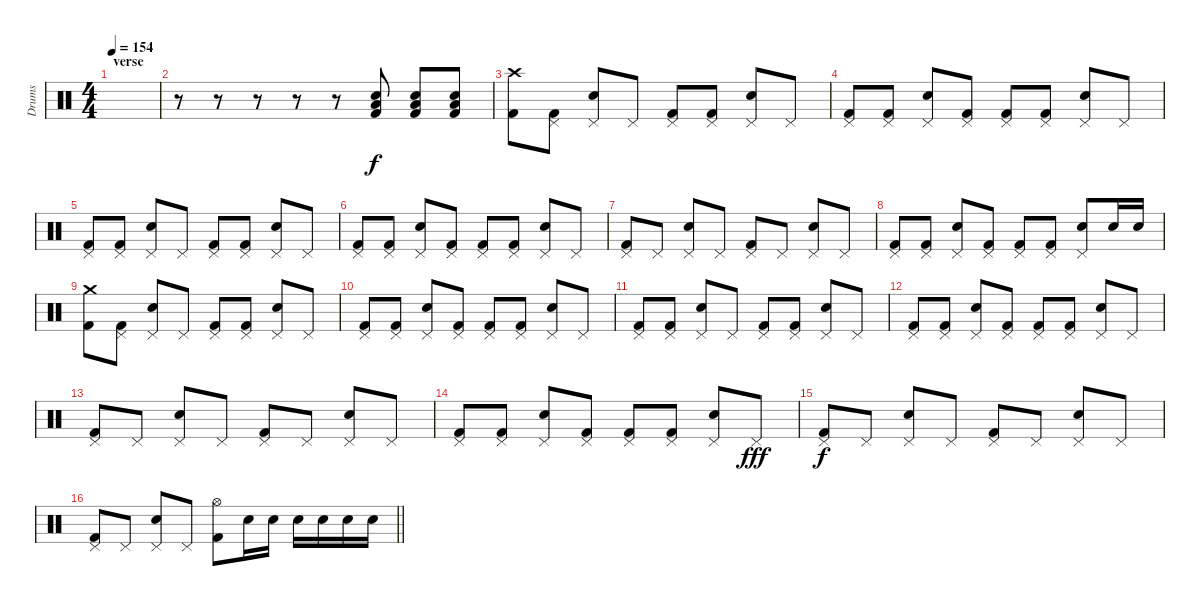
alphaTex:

\track ("Drums" "Drums") {instrument percussion}
\staff {score}
\articulation defaults
\ts (4 4)
\section ("" "verse")
\tempo 154
\clef neutral
\ks c
|
r.8 r.8 r.8 r.8 r.8 ("Snare (hit) 2" "Low Floor Tom (hit)" "Kick (hit) 2").8 ("Snare (hit) 2" "Low Floor Tom (hit)" "Kick (hit) 2").8 ("Snare (hit) 2" "Low Floor Tom (hit)" "Kick (hit) 2").8 |
("Crash high (hit)" "Kick (hit) 2").8{dy f} ("Pedal Hi-Hat (hit)" "Kick (hit) 2").8 ("Pedal Hi-Hat (hit)" "Snare (hit) 2").8 "Pedal Hi-Hat (hit)".8 ("Pedal Hi-Hat (hit)" "Kick (hit) 2").8 ("Pedal Hi-Hat (hit)" "Kick (hit) 2").8 ("Pedal Hi-Hat (hit)" "Snare (hit) 2").8 "Pedal Hi-Hat (hit)".8 |
("Pedal Hi-Hat (hit)" "Kick (hit) 2").8 ("Pedal Hi-Hat (hit)" "Kick (hit) 2").8 ("Pedal Hi-Hat (hit)" "Snare (hit) 2").8 ("Pedal Hi-Hat (hit)" "Kick (hit) 2").8 ("Pedal Hi-Hat (hit)" "Kick (hit) 2").8 ("Pedal Hi-Hat (hit)" "Kick (hit) 2").8 ("Pedal Hi-Hat (hit)" "Snare (hit) 2").8 "Pedal Hi-Hat (hit)".8 |
("Pedal Hi-Hat (hit)" "Kick (hit) 2").8 ("Pedal Hi-Hat (hit)" "Kick (hit) 2").8 ("Pedal Hi-Hat (hit)" "Snare (hit) 2").8 "Pedal Hi-Hat (hit)".8 ("Pedal Hi-Hat (hit)" "Kick (hit) 2").8 ("Pedal Hi-Hat (hit)" "Kick (hit) 2").8 ("Pedal Hi-Hat (hit)" "Snare (hit) 2").8 "Pedal Hi-Hat (hit)".8 |
("Pedal Hi-Hat (hit)" "Kick (hit) 2").8 ("Pedal Hi-Hat (hit)" "Kick (hit) 2").8 ("Pedal Hi-Hat (hit)" "Snare (hit) 2").8 ("Pedal Hi-Hat (hit)" "Kick (hit) 2").8 ("Pedal Hi-Hat (hit)" "Kick (hit) 2").8 ("Pedal Hi-Hat (hit)" "Kick (hit) 2").8 ("Pedal Hi-Hat (hit)" "Snare (hit) 2").8 "Pedal Hi-Hat (hit)".8 |
("Pedal Hi-Hat (hit)" "Kick (hit) 2").8 "Pedal Hi-Hat (hit)".8 ("Pedal Hi-Hat (hit)" "Snare (hit) 2").8 "Pedal Hi-Hat (hit)".8 ("Pedal Hi-Hat (hit)" "Kick (hit) 2").8 "Pedal Hi-Hat (hit)".8 ("Pedal Hi-Hat (hit)" "Snare (hit) 2").8 "Pedal Hi-Hat (hit)".8 |
("Pedal Hi-Hat (hit)" "Kick (hit) 2").8 ("Pedal Hi-Hat (hit)" "Kick (hit) 2").8 ("Pedal Hi-Hat (hit)" "Snare (hit) 2").8 ("Pedal Hi-Hat (hit)" "Kick (hit) 2").8 ("Pedal Hi-Hat (hit)" "Kick (hit) 2").8 ("Pedal Hi-Hat (hit)" "Kick (hit) 2").8 ("Pedal Hi-Hat (hit)" "Snare (hit) 2").8 "Snare (hit) 2".16 "Snare (hit) 2".16 |
("Crash medium (hit)" "Kick (hit) 2").8 ("Pedal Hi-Hat (hit)" "Kick (hit) 2").8 ("Pedal Hi-Hat (hit)" "Snare (hit) 2").8 "Pedal Hi-Hat (hit)".8 ("Pedal Hi-Hat (hit)" "Kick (hit) 2").8 ("Pedal Hi-Hat (hit)" "Kick (hit) 2").8 ("Pedal Hi-Hat (hit)" "Snare (hit) 2").8 "Pedal Hi-Hat (hit)".8 |
("Pedal Hi-Hat (hit)" "Kick (hit) 2").8 ("Pedal Hi-Hat (hit)" "Kick (hit) 2").8 ("Pedal Hi-Hat (hit)" "Snare (hit) 2").8 ("Pedal Hi-Hat (hit)" "Kick (hit) 2").8 ("Pedal Hi-Hat (hit)" "Kick (hit) 2").8 ("Pedal Hi-Hat (hit)" "Kick (hit) 2").8 ("Pedal Hi-Hat (hit)" "Snare (hit) 2").8 "Pedal Hi-Hat (hit)".8 |
("Pedal Hi-Hat (hit)" "Kick (hit) 2").8 ("Pedal Hi-Hat (hit)" "Kick (hit) 2").8 ("Pedal Hi-Hat (hit)" "Snare (hit) 2").8 "Pedal Hi-Hat (hit)".8 ("Pedal Hi-Hat (hit)" "Kick (hit) 2").8 ("Pedal Hi-Hat (hit)" "Kick (hit) 2").8 ("Pedal Hi-Hat (hit)" "Snare (hit) 2").8 "Pedal Hi-Hat (hit)".8 |
("Pedal Hi-Hat (hit)" "Kick (hit) 2").8 ("Pedal Hi-Hat (hit)" "Kick (hit) 2").8 ("Pedal Hi-Hat (hit)" "Snare (hit) 2").8 ("Pedal Hi-Hat (hit)" "Kick (hit) 2").8 ("Pedal Hi-Hat (hit)" "Kick (hit) 2").8 ("Pedal Hi-Hat (hit)" "Kick (hit) 2").8 ("Pedal Hi-Hat (hit)" "Snare (hit) 2").8 "Pedal Hi-Hat (hit)".8 |
("Pedal Hi-Hat (hit)" "Kick (hit) 2").8 "Pedal Hi-Hat (hit)".8 ("Pedal Hi-Hat (hit)" "Snare (hit) 2").8 "Pedal Hi-Hat (hit)".8 ("Pedal Hi-Hat (hit)" "Kick (hit) 2").8 "Pedal Hi-Hat (hit)".8 ("Pedal Hi-Hat (hit)" "Snare (hit) 2").8 "Pedal Hi-Hat (hit)".8 |
("Pedal Hi-Hat (hit)" "Kick (hit) 2").8 ("Pedal Hi-Hat (hit)" "Kick (hit) 2").8 ("Pedal Hi-Hat (hit)" "Snare (hit) 2").8 ("Pedal Hi-Hat (hit)" "Kick (hit) 2").8 ("Pedal Hi-Hat (hit)" "Kick (hit) 2").8 ("Pedal Hi-Hat (hit)" "Kick (hit) 2").8 ("Pedal Hi-Hat (hit)" "Snare (hit) 2").8 "Pedal Hi-Hat (hit)".8{dy fff} |
("Pedal Hi-Hat (hit)" "Kick (hit) 2").8{dy f} "Pedal Hi-Hat (hit)".8 ("Pedal Hi-Hat (hit)" "Snare (hit) 2").8 "Pedal Hi-Hat (hit)".8 ("Pedal Hi-Hat (hit)" "Kick (hit) 2").8 "Pedal Hi-Hat (hit)".8 ("Pedal Hi-Hat (hit)" "Snare (hit) 2").8 "Pedal Hi-Hat (hit)".8 |
\barLineRight lightlight
("Pedal Hi-Hat (hit)" "Kick (hit) 2").8 "Pedal Hi-Hat (hit)".8 ("Pedal Hi-Hat (hit)" "Snare (hit) 2").8 "Pedal Hi-Hat (hit)".8 ("Hi-Hat (open)" "Kick (hit) 2").8 "Snare (hit) 2".16 "Snare (hit) 2".16 "Snare (hit) 2".16 "Snare (hit) 2".16 "Snare (hit) 2".16 "Snare (hit) 2".16
